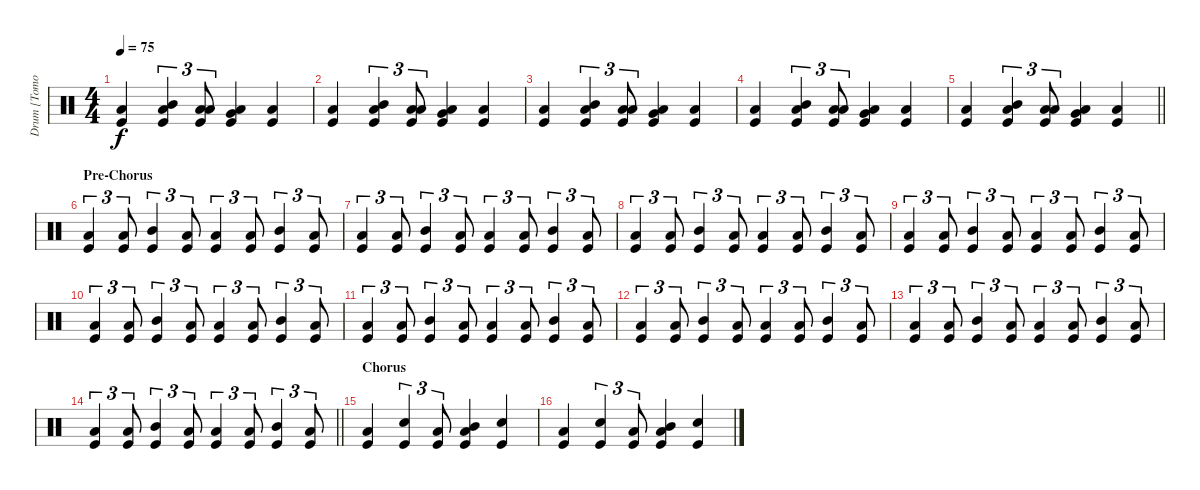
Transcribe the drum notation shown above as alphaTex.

\track ("Drum [Tomoya]" "Drum [Tomo") {instrument percussion}
\staff {score}
\articulation defaults
\ts (4 4)
\tempo 75
\clef neutral
\ks c
("Low Floor Tom (hit)" "Kick (hit)").4{dy f} ("Mid Tom (hit)" "Kick (hit)" "Low Floor Tom (hit)").4{tu (3 2)} ("Low Tom (hit)" "Kick (hit)" "Low Floor Tom (hit)").8{tu (3 2)} ("Very Low Tom (hit)" "Kick (hit)" "Low Floor Tom (hit)").4 ("Low Floor Tom (hit)" "Kick (hit)").4 |
("Low Floor Tom (hit)" "Kick (hit)").4 ("Mid Tom (hit)" "Kick (hit)" "Low Floor Tom (hit)").4{tu (3 2)} ("Low Tom (hit)" "Kick (hit)" "Low Floor Tom (hit)").8{tu (3 2)} ("Very Low Tom (hit)" "Kick (hit)" "Low Floor Tom (hit)").4 ("Low Floor Tom (hit)" "Kick (hit)").4 |
("Low Floor Tom (hit)" "Kick (hit)").4 ("Mid Tom (hit)" "Kick (hit)" "Low Floor Tom (hit)").4{tu (3 2)} ("Low Tom (hit)" "Kick (hit)" "Low Floor Tom (hit)").8{tu (3 2)} ("Very Low Tom (hit)" "Kick (hit)" "Low Floor Tom (hit)").4 ("Low Floor Tom (hit)" "Kick (hit)").4 |
("Low Floor Tom (hit)" "Kick (hit)").4 ("Mid Tom (hit)" "Kick (hit)" "Low Floor Tom (hit)").4{tu (3 2)} ("Low Tom (hit)" "Kick (hit)" "Low Floor Tom (hit)").8{tu (3 2)} ("Very Low Tom (hit)" "Kick (hit)" "Low Floor Tom (hit)").4 ("Low Floor Tom (hit)" "Kick (hit)").4 |
\barLineRight lightlight
("Low Floor Tom (hit)" "Kick (hit)").4 ("Mid Tom (hit)" "Kick (hit)" "Low Floor Tom (hit)").4{tu (3 2)} ("Low Tom (hit)" "Kick (hit)" "Low Floor Tom (hit)").8{tu (3 2)} ("Very Low Tom (hit)" "Kick (hit)" "Low Floor Tom (hit)").4 ("Low Floor Tom (hit)" "Kick (hit)").4 |
\section ("" "Pre-Chorus")
("Low Floor Tom (hit)" "Kick (hit)").4{tu (3 2)} ("Low Floor Tom (hit)" "Kick (hit)").8{tu (3 2)} ("Mid Tom (hit)" "Kick (hit)").4{tu (3 2)} ("Low Floor Tom (hit)" "Kick (hit)").8{tu (3 2)} ("Low Floor Tom (hit)" "Kick (hit)").4{tu (3 2)} ("Low Floor Tom (hit)" "Kick (hit)").8{tu (3 2)} ("Mid Tom (hit)" "Kick (hit)").4{tu (3 2)} ("Low Floor Tom (hit)" "Kick (hit)").8{tu (3 2)} |
("Low Floor Tom (hit)" "Kick (hit)").4{tu (3 2)} ("Low Floor Tom (hit)" "Kick (hit)").8{tu (3 2)} ("Mid Tom (hit)" "Kick (hit)").4{tu (3 2)} ("Low Floor Tom (hit)" "Kick (hit)").8{tu (3 2)} ("Low Floor Tom (hit)" "Kick (hit)").4{tu (3 2)} ("Low Floor Tom (hit)" "Kick (hit)").8{tu (3 2)} ("Mid Tom (hit)" "Kick (hit)").4{tu (3 2)} ("Low Floor Tom (hit)" "Kick (hit)").8{tu (3 2)} |
("Low Floor Tom (hit)" "Kick (hit)").4{tu (3 2)} ("Low Floor Tom (hit)" "Kick (hit)").8{tu (3 2)} ("Mid Tom (hit)" "Kick (hit)").4{tu (3 2)} ("Low Floor Tom (hit)" "Kick (hit)").8{tu (3 2)} ("Low Floor Tom (hit)" "Kick (hit)").4{tu (3 2)} ("Low Floor Tom (hit)" "Kick (hit)").8{tu (3 2)} ("Mid Tom (hit)" "Kick (hit)").4{tu (3 2)} ("Low Floor Tom (hit)" "Kick (hit)").8{tu (3 2)} |
("Low Floor Tom (hit)" "Kick (hit)").4{tu (3 2)} ("Low Floor Tom (hit)" "Kick (hit)").8{tu (3 2)} ("Mid Tom (hit)" "Kick (hit)").4{tu (3 2)} ("Low Floor Tom (hit)" "Kick (hit)").8{tu (3 2)} ("Low Floor Tom (hit)" "Kick (hit)").4{tu (3 2)} ("Low Floor Tom (hit)" "Kick (hit)").8{tu (3 2)} ("Mid Tom (hit)" "Kick (hit)").4{tu (3 2)} ("Low Floor Tom (hit)" "Kick (hit)").8{tu (3 2)} |
("Low Floor Tom (hit)" "Kick (hit)").4{tu (3 2)} ("Low Floor Tom (hit)" "Kick (hit)").8{tu (3 2)} ("Mid Tom (hit)" "Kick (hit)").4{tu (3 2)} ("Low Floor Tom (hit)" "Kick (hit)").8{tu (3 2)} ("Low Floor Tom (hit)" "Kick (hit)").4{tu (3 2)} ("Low Floor Tom (hit)" "Kick (hit)").8{tu (3 2)} ("Mid Tom (hit)" "Kick (hit)").4{tu (3 2)} ("Low Floor Tom (hit)" "Kick (hit)").8{tu (3 2)} |
("Low Floor Tom (hit)" "Kick (hit)").4{tu (3 2)} ("Low Floor Tom (hit)" "Kick (hit)").8{tu (3 2)} ("Mid Tom (hit)" "Kick (hit)").4{tu (3 2)} ("Low Floor Tom (hit)" "Kick (hit)").8{tu (3 2)} ("Low Floor Tom (hit)" "Kick (hit)").4{tu (3 2)} ("Low Floor Tom (hit)" "Kick (hit)").8{tu (3 2)} ("Mid Tom (hit)" "Kick (hit)").4{tu (3 2)} ("Low Floor Tom (hit)" "Kick (hit)").8{tu (3 2)} |
("Low Floor Tom (hit)" "Kick (hit)").4{tu (3 2)} ("Low Floor Tom (hit)" "Kick (hit)").8{tu (3 2)} ("Mid Tom (hit)" "Kick (hit)").4{tu (3 2)} ("Low Floor Tom (hit)" "Kick (hit)").8{tu (3 2)} ("Low Floor Tom (hit)" "Kick (hit)").4{tu (3 2)} ("Low Floor Tom (hit)" "Kick (hit)").8{tu (3 2)} ("Mid Tom (hit)" "Kick (hit)").4{tu (3 2)} ("Low Floor Tom (hit)" "Kick (hit)").8{tu (3 2)} |
("Low Floor Tom (hit)" "Kick (hit)").4{tu (3 2)} ("Low Floor Tom (hit)" "Kick (hit)").8{tu (3 2)} ("Mid Tom (hit)" "Kick (hit)").4{tu (3 2)} ("Low Floor Tom (hit)" "Kick (hit)").8{tu (3 2)} ("Low Floor Tom (hit)" "Kick (hit)").4{tu (3 2)} ("Low Floor Tom (hit)" "Kick (hit)").8{tu (3 2)} ("Mid Tom (hit)" "Kick (hit)").4{tu (3 2)} ("Low Floor Tom (hit)" "Kick (hit)").8{tu (3 2)} |
\barLineRight lightlight
("Low Floor Tom (hit)" "Kick (hit)").4{tu (3 2)} ("Low Floor Tom (hit)" "Kick (hit)").8{tu (3 2)} ("Mid Tom (hit)" "Kick (hit)").4{tu (3 2)} ("Low Floor Tom (hit)" "Kick (hit)").8{tu (3 2)} ("Low Floor Tom (hit)" "Kick (hit)").4{tu (3 2)} ("Low Floor Tom (hit)" "Kick (hit)").8{tu (3 2)} ("Mid Tom (hit)" "Kick (hit)").4{tu (3 2)} ("Low Floor Tom (hit)" "Kick (hit)").8{tu (3 2)} |
\section ("" "Chorus")
("Low Floor Tom (hit)" "Kick (hit)").4 ("Snare (hit) 2" "Kick (hit)").4{tu (3 2)} ("Low Floor Tom (hit)" "Kick (hit)").8{tu (3 2)} ("Low Tom (hit)" "Mid Tom (hit)" "Kick (hit)").4 ("Snare (hit) 2" "Kick (hit)").4 |
("Low Floor Tom (hit)" "Kick (hit)").4 ("Snare (hit) 2" "Kick (hit)").4{tu (3 2)} ("Low Floor Tom (hit)" "Kick (hit)").8{tu (3 2)} ("Low Tom (hit)" "Mid Tom (hit)" "Kick (hit)").4 ("Snare (hit) 2" "Kick (hit)").4
